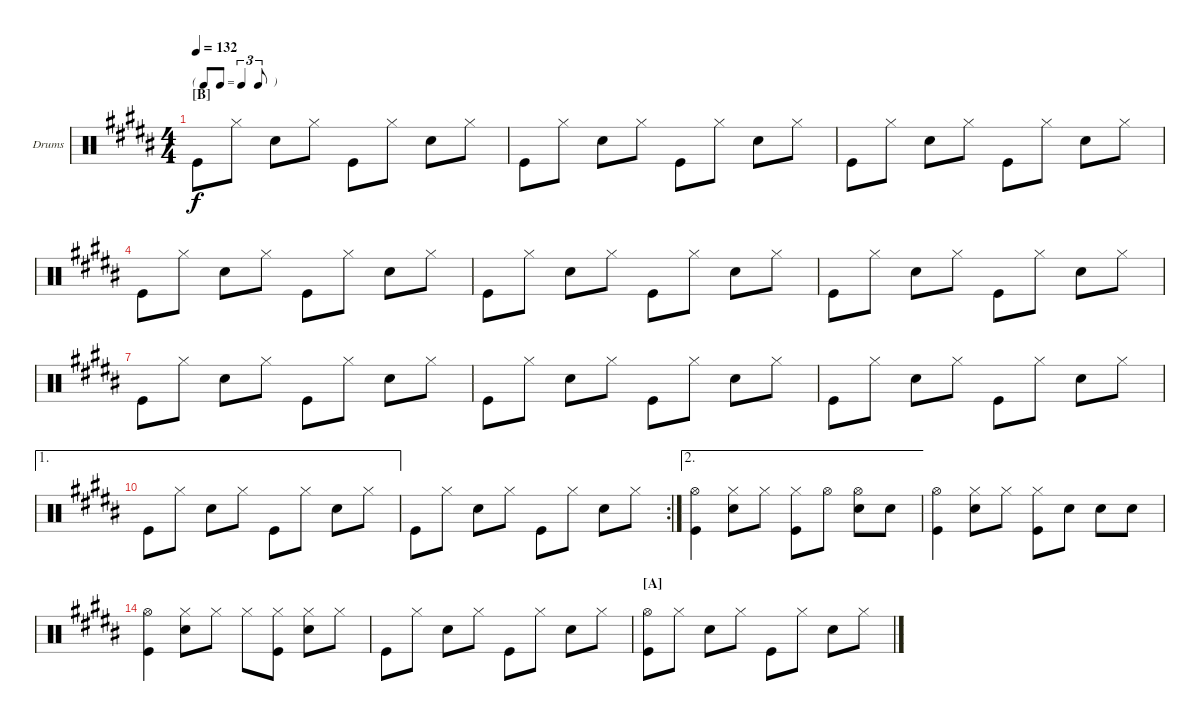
\bracketExtendMode nobrackets
\firstSystemTrackNameOrientation horizontal
\otherSystemsTrackNameOrientation horizontal
\defaultBarNumberDisplay FirstOfSystem
\track ("Drumkit" "Drums") {instrument percussion}
\staff {score}
\articulation defaults
\ts (4 4)
\tf triplet8th
\section ("B" "")
\scale
0.25
\tempo 132
\accidentals auto
\clef neutral
\ottava regular
\simile none
\ks b "Kick (hit)".8{dy f} "Hi-Hat (closed)".8 "Snare (hit) 2".8 "Hi-Hat (closed)".8 "Kick (hit)".8 "Hi-Hat (closed)".8 "Snare (hit) 2".8 "Hi-Hat (closed)".8
|
\scale
0.25 "Kick (hit)".8 "Hi-Hat (closed)".8 "Snare (hit) 2".8 "Hi-Hat (closed)".8 "Kick (hit)".8 "Hi-Hat (closed)".8 "Snare (hit) 2".8 "Hi-Hat (closed)".8 |
\scale
0.25 "Kick (hit)".8 "Hi-Hat (closed)".8 "Snare (hit) 2".8 "Hi-Hat (closed)".8 "Kick (hit)".8 "Hi-Hat (closed)".8 "Snare (hit) 2".8 "Hi-Hat (closed)".8 |
\scale
0.25 "Kick (hit)".8 "Hi-Hat (closed)".8 "Snare (hit) 2".8 "Hi-Hat (closed)".8 "Kick (hit)".8 "Hi-Hat (closed)".8 "Snare (hit) 2".8 "Hi-Hat (closed)".8 |
\scale
0.225806 "Kick (hit)".8 "Hi-Hat (closed)".8 "Snare (hit) 2".8 "Hi-Hat (closed)".8 "Kick (hit)".8 "Hi-Hat (closed)".8 "Snare (hit) 2".8 "Hi-Hat (closed)".8 |
\scale
0.225806 "Kick (hit)".8 "Hi-Hat (closed)".8 "Snare (hit) 2".8 "Hi-Hat (closed)".8 "Kick (hit)".8 "Hi-Hat (closed)".8 "Snare (hit) 2".8 "Hi-Hat (closed)".8 |
\scale
0.225806 "Kick (hit)".8 "Hi-Hat (closed)".8 "Snare (hit) 2".8 "Hi-Hat (closed)".8 "Kick (hit)".8 "Hi-Hat (closed)".8 "Snare (hit) 2".8 "Hi-Hat (closed)".8 |
\scale
0.322581 "Kick (hit)".8 "Hi-Hat (closed)".8 "Snare (hit) 2".8 "Hi-Hat (closed)".8 "Kick (hit)".8 "Hi-Hat (closed)".8 "Snare (hit) 2".8 "Hi-Hat (closed)".8 |
"Kick (hit)".8 "Hi-Hat (closed)".8 "Snare (hit) 2".8 "Hi-Hat (closed)".8 "Kick (hit)".8 "Hi-Hat (closed)".8 "Snare (hit) 2".8 "Hi-Hat (closed)".8 |
\ae 1 "Kick (hit)".8 "Hi-Hat (closed)".8 "Snare (hit) 2".8 "Hi-Hat (closed)".8 "Kick (hit)".8 "Hi-Hat (closed)".8 "Snare (hit) 2".8 "Hi-Hat (closed)".8
|
\rc 2 "Kick (hit)".8 "Hi-Hat (closed)".8 "Snare (hit) 2".8 "Hi-Hat (closed)".8 "Kick (hit)".8 "Hi-Hat (closed)".8 "Snare (hit) 2".8 "Hi-Hat (closed)".8
|
\ae 2
("Hi-Hat (open)" "Kick (hit)").4 ("Hi-Hat (closed)" "Snare (hit) 2").8 "Hi-Hat (closed)".8 ("Hi-Hat (closed)" "Kick (hit)").8 "Hi-Hat (open)".8 ("Hi-Hat (open)" "Snare (hit) 2").8 "Snare (hit) 2".8 |
("Hi-Hat (open)" "Kick (hit)").4 ("Hi-Hat (closed)" "Snare (hit) 2").8 "Hi-Hat (closed)".8 ("Hi-Hat (closed)" "Kick (hit)").8 "Snare (hit) 2".8 "Snare (hit) 2".8 "Snare (hit) 2".8 |
("Hi-Hat (open)" "Kick (hit)").4 ("Hi-Hat (closed)" "Snare (hit) 2").8 "Hi-Hat (closed)".8 "Hi-Hat (closed)".8 ("Hi-Hat (closed)" "Kick (hit)").8 ("Hi-Hat (closed)" "Snare (hit) 2").8 "Hi-Hat (closed)".8 |
"Kick (hit)".8 "Hi-Hat (closed)".8 "Snare (hit) 2".8 "Hi-Hat (closed)".8 "Kick (hit)".8 "Hi-Hat (closed)".8 "Snare (hit) 2".8 "Hi-Hat (closed)".8 |
\section ("A" "")
("Hi-Hat (open)" "Kick (hit)").8 "Hi-Hat (closed)".8 "Snare (hit) 2".8 "Hi-Hat (closed)".8 "Kick (hit)".8 "Hi-Hat (closed)".8 "Snare (hit) 2".8 "Hi-Hat (closed)".8
